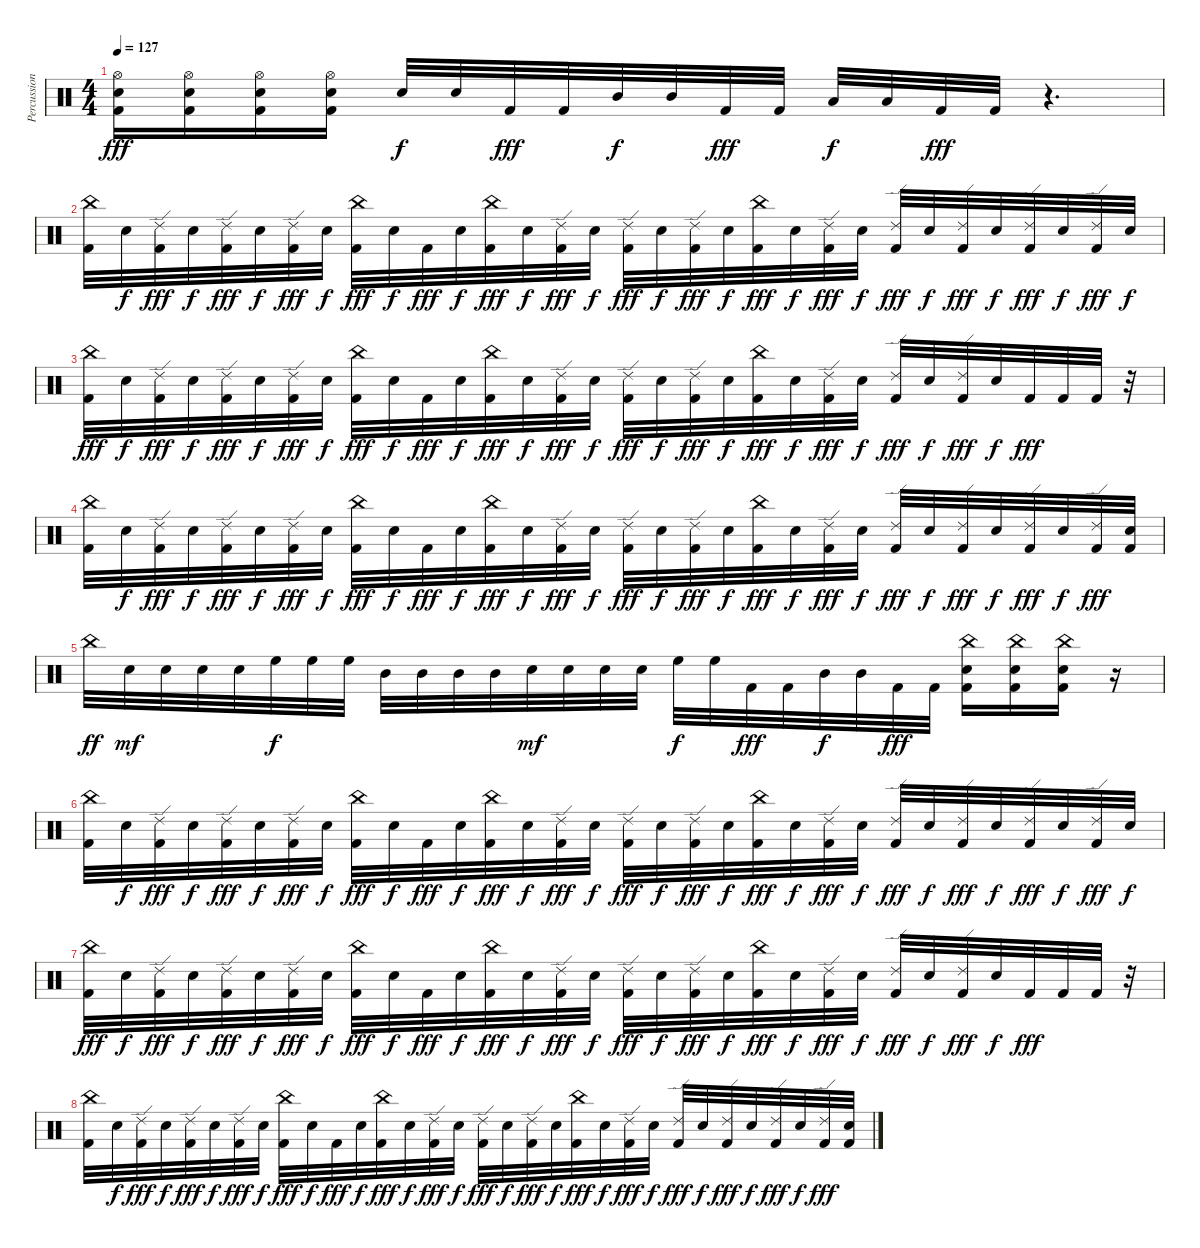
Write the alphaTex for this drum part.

\track ("Percussion" "Percussion") {instrument percussion}
\staff {score}
\articulation defaults
\ts (4 4)
\tempo 127
\clef neutral
\ks c
("Hi-Hat (open)" "Electric Snare (hit)" "Kick (hit) 2").16{dy fff} ("Hi-Hat (open)" "Electric Snare (hit)" "Kick (hit) 2").16 ("Hi-Hat (open)" "Electric Snare (hit)" "Kick (hit) 2").16 ("Hi-Hat (open)" "Electric Snare (hit)" "Kick (hit) 2").16 "Electric Snare (hit)".32{dy f} "Electric Snare (hit)".32 "Kick (hit) 2".32{dy fff} "Kick (hit) 2".32 "Mid Tom (hit)".32{dy f} "Mid Tom (hit)".32 "Kick (hit) 2".32{dy fff} "Kick (hit) 2".32 "Low Tom (hit)".32{dy f} "Low Tom (hit)".32 "Kick (hit) 2".32{dy fff} "Kick (hit) 2".32 r.4{d} |
("China (hit)" "Kick (hit) 2").32 "Electric Snare (hit)".32{dy f} ("Ride (edge) 2" "Kick (hit) 2").32{dy fff} "Electric Snare (hit)".32{dy f} ("Ride (edge) 2" "Kick (hit) 2").32{dy fff} "Electric Snare (hit)".32{dy f} ("Ride (edge) 2" "Kick (hit) 2").32{dy fff} "Electric Snare (hit)".32{dy f} ("China (hit)" "Kick (hit) 2").32{dy fff} "Electric Snare (hit)".32{dy f} "Kick (hit) 2".32{dy fff} "Electric Snare (hit)".32{dy f} ("China (hit)" "Kick (hit) 2").32{dy fff} "Electric Snare (hit)".32{dy f} ("Ride (edge) 2" "Kick (hit) 2").32{dy fff} "Electric Snare (hit)".32{dy f} ("Ride (edge) 2" "Kick (hit) 2").32{dy fff} "Electric Snare (hit)".32{dy f} ("Ride (edge) 2" "Kick (hit) 2").32{dy fff} "Electric Snare (hit)".32{dy f} ("China (hit)" "Kick (hit) 2").32{dy fff} "Electric Snare (hit)".32{dy f} ("Ride (edge) 2" "Kick (hit) 2").32{dy fff} "Electric Snare (hit)".32{dy f} ("Ride (edge) 2" "Kick (hit) 2").32{dy fff} "Electric Snare (hit)".32{dy f} ("Ride (edge) 2" "Kick (hit) 2").32{dy fff} "Electric Snare (hit)".32{dy f} ("Ride (edge) 2" "Kick (hit) 2").32{dy fff} "Electric Snare (hit)".32{dy f} ("Ride (edge) 2" "Kick (hit) 2").32{dy fff} "Electric Snare (hit)".32{dy f} |
("China (hit)" "Kick (hit) 2").32{dy fff} "Electric Snare (hit)".32{dy f} ("Ride (edge) 2" "Kick (hit) 2").32{dy fff} "Electric Snare (hit)".32{dy f} ("Ride (edge) 2" "Kick (hit) 2").32{dy fff} "Electric Snare (hit)".32{dy f} ("Ride (edge) 2" "Kick (hit) 2").32{dy fff} "Electric Snare (hit)".32{dy f} ("China (hit)" "Kick (hit) 2").32{dy fff} "Electric Snare (hit)".32{dy f} "Kick (hit) 2".32{dy fff} "Electric Snare (hit)".32{dy f} ("China (hit)" "Kick (hit) 2").32{dy fff} "Electric Snare (hit)".32{dy f} ("Ride (edge) 2" "Kick (hit) 2").32{dy fff} "Electric Snare (hit)".32{dy f} ("Ride (edge) 2" "Kick (hit) 2").32{dy fff} "Electric Snare (hit)".32{dy f} ("Ride (edge) 2" "Kick (hit) 2").32{dy fff} "Electric Snare (hit)".32{dy f} ("China (hit)" "Kick (hit) 2").32{dy fff} "Electric Snare (hit)".32{dy f} ("Ride (edge) 2" "Kick (hit) 2").32{dy fff} "Electric Snare (hit)".32{dy f} ("Ride (edge) 2" "Kick (hit) 2").32{dy fff} "Electric Snare (hit)".32{dy f} ("Ride (edge) 2" "Kick (hit) 2").32{dy fff} "Electric Snare (hit)".32{dy f} "Kick (hit) 2".32{dy fff} "Kick (hit) 2".32 "Kick (hit) 2".32 r.32 |
("China (hit)" "Kick (hit) 2").32 "Electric Snare (hit)".32{dy f} ("Ride (edge) 2" "Kick (hit) 2").32{dy fff} "Electric Snare (hit)".32{dy f} ("Ride (edge) 2" "Kick (hit) 2").32{dy fff} "Electric Snare (hit)".32{dy f} ("Ride (edge) 2" "Kick (hit) 2").32{dy fff} "Electric Snare (hit)".32{dy f} ("China (hit)" "Kick (hit) 2").32{dy fff} "Electric Snare (hit)".32{dy f} "Kick (hit) 2".32{dy fff} "Electric Snare (hit)".32{dy f} ("China (hit)" "Kick (hit) 2").32{dy fff} "Electric Snare (hit)".32{dy f} ("Ride (edge) 2" "Kick (hit) 2").32{dy fff} "Electric Snare (hit)".32{dy f} ("Ride (edge) 2" "Kick (hit) 2").32{dy fff} "Electric Snare (hit)".32{dy f} ("Ride (edge) 2" "Kick (hit) 2").32{dy fff} "Electric Snare (hit)".32{dy f} ("China (hit)" "Kick (hit) 2").32{dy fff} "Electric Snare (hit)".32{dy f} ("Ride (edge) 2" "Kick (hit) 2").32{dy fff} "Electric Snare (hit)".32{dy f} ("Ride (edge) 2" "Kick (hit) 2").32{dy fff} "Electric Snare (hit)".32{dy f} ("Ride (edge) 2" "Kick (hit) 2").32{dy fff} "Electric Snare (hit)".32{dy f} ("Ride (edge) 2" "Kick (hit) 2").32{dy fff} "Electric Snare (hit)".32{dy f} ("Ride (edge) 2" "Kick (hit) 2").32{dy fff} ("Electric Snare (hit)" "Kick (hit) 2").32 |
"China (hit)".32{dy ff} "Electric Snare (hit)".32{dy mf} "Electric Snare (hit)".32 "Electric Snare (hit)".32 "Electric Snare (hit)".32 "High Floor Tom (hit)".32{dy f} "High Floor Tom (hit)".32 "High Floor Tom (hit)".32 "Mid Tom (hit)".32 "Mid Tom (hit)".32 "Mid Tom (hit)".32 "Mid Tom (hit)".32 "Electric Snare (hit)".32{dy mf} "Electric Snare (hit)".32 "Electric Snare (hit)".32 "Electric Snare (hit)".32 "High Floor Tom (hit)".32{dy f} "High Floor Tom (hit)".32 "Kick (hit) 2".32{dy fff} "Kick (hit) 2".32 "Mid Tom (hit)".32{dy f} "Mid Tom (hit)".32 "Kick (hit) 2".32{dy fff} "Kick (hit) 2".32 ("China (hit)" "Electric Snare (hit)" "Kick (hit) 2").16 ("China (hit)" "Electric Snare (hit)" "Kick (hit) 2").16 ("China (hit)" "Electric Snare (hit)" "Kick (hit) 2").16 r.16 |
("China (hit)" "Kick (hit) 2").32 "Electric Snare (hit)".32{dy f} ("Ride (edge) 2" "Kick (hit) 2").32{dy fff} "Electric Snare (hit)".32{dy f} ("Ride (edge) 2" "Kick (hit) 2").32{dy fff} "Electric Snare (hit)".32{dy f} ("Ride (edge) 2" "Kick (hit) 2").32{dy fff} "Electric Snare (hit)".32{dy f} ("China (hit)" "Kick (hit) 2").32{dy fff} "Electric Snare (hit)".32{dy f} "Kick (hit) 2".32{dy fff} "Electric Snare (hit)".32{dy f} ("China (hit)" "Kick (hit) 2").32{dy fff} "Electric Snare (hit)".32{dy f} ("Ride (edge) 2" "Kick (hit) 2").32{dy fff} "Electric Snare (hit)".32{dy f} ("Ride (edge) 2" "Kick (hit) 2").32{dy fff} "Electric Snare (hit)".32{dy f} ("Ride (edge) 2" "Kick (hit) 2").32{dy fff} "Electric Snare (hit)".32{dy f} ("China (hit)" "Kick (hit) 2").32{dy fff} "Electric Snare (hit)".32{dy f} ("Ride (edge) 2" "Kick (hit) 2").32{dy fff} "Electric Snare (hit)".32{dy f} ("Ride (edge) 2" "Kick (hit) 2").32{dy fff} "Electric Snare (hit)".32{dy f} ("Ride (edge) 2" "Kick (hit) 2").32{dy fff} "Electric Snare (hit)".32{dy f} ("Ride (edge) 2" "Kick (hit) 2").32{dy fff} "Electric Snare (hit)".32{dy f} ("Ride (edge) 2" "Kick (hit) 2").32{dy fff} "Electric Snare (hit)".32{dy f} |
("China (hit)" "Kick (hit) 2").32{dy fff} "Electric Snare (hit)".32{dy f} ("Ride (edge) 2" "Kick (hit) 2").32{dy fff} "Electric Snare (hit)".32{dy f} ("Ride (edge) 2" "Kick (hit) 2").32{dy fff} "Electric Snare (hit)".32{dy f} ("Ride (edge) 2" "Kick (hit) 2").32{dy fff} "Electric Snare (hit)".32{dy f} ("China (hit)" "Kick (hit) 2").32{dy fff} "Electric Snare (hit)".32{dy f} "Kick (hit) 2".32{dy fff} "Electric Snare (hit)".32{dy f} ("China (hit)" "Kick (hit) 2").32{dy fff} "Electric Snare (hit)".32{dy f} ("Ride (edge) 2" "Kick (hit) 2").32{dy fff} "Electric Snare (hit)".32{dy f} ("Ride (edge) 2" "Kick (hit) 2").32{dy fff} "Electric Snare (hit)".32{dy f} ("Ride (edge) 2" "Kick (hit) 2").32{dy fff} "Electric Snare (hit)".32{dy f} ("China (hit)" "Kick (hit) 2").32{dy fff} "Electric Snare (hit)".32{dy f} ("Ride (edge) 2" "Kick (hit) 2").32{dy fff} "Electric Snare (hit)".32{dy f} ("Ride (edge) 2" "Kick (hit) 2").32{dy fff} "Electric Snare (hit)".32{dy f} ("Ride (edge) 2" "Kick (hit) 2").32{dy fff} "Electric Snare (hit)".32{dy f} "Kick (hit) 2".32{dy fff} "Kick (hit) 2".32 "Kick (hit) 2".32 r.32 |
("China (hit)" "Kick (hit) 2").32 "Electric Snare (hit)".32{dy f} ("Ride (edge) 2" "Kick (hit) 2").32{dy fff} "Electric Snare (hit)".32{dy f} ("Ride (edge) 2" "Kick (hit) 2").32{dy fff} "Electric Snare (hit)".32{dy f} ("Ride (edge) 2" "Kick (hit) 2").32{dy fff} "Electric Snare (hit)".32{dy f} ("China (hit)" "Kick (hit) 2").32{dy fff} "Electric Snare (hit)".32{dy f} "Kick (hit) 2".32{dy fff} "Electric Snare (hit)".32{dy f} ("China (hit)" "Kick (hit) 2").32{dy fff} "Electric Snare (hit)".32{dy f} ("Ride (edge) 2" "Kick (hit) 2").32{dy fff} "Electric Snare (hit)".32{dy f} ("Ride (edge) 2" "Kick (hit) 2").32{dy fff} "Electric Snare (hit)".32{dy f} ("Ride (edge) 2" "Kick (hit) 2").32{dy fff} "Electric Snare (hit)".32{dy f} ("China (hit)" "Kick (hit) 2").32{dy fff} "Electric Snare (hit)".32{dy f} ("Ride (edge) 2" "Kick (hit) 2").32{dy fff} "Electric Snare (hit)".32{dy f} ("Ride (edge) 2" "Kick (hit) 2").32{dy fff} "Electric Snare (hit)".32{dy f} ("Ride (edge) 2" "Kick (hit) 2").32{dy fff} "Electric Snare (hit)".32{dy f} ("Ride (edge) 2" "Kick (hit) 2").32{dy fff} "Electric Snare (hit)".32{dy f} ("Ride (edge) 2" "Kick (hit) 2").32{dy fff} ("Electric Snare (hit)" "Kick (hit) 2").32
